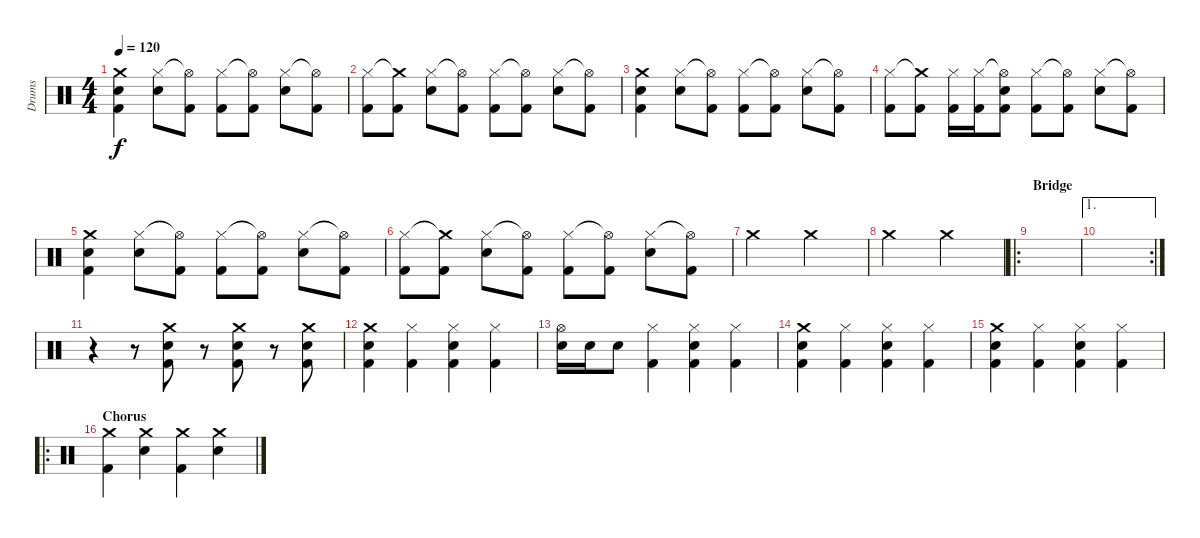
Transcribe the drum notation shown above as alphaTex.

\track ("Drums" "Drums") {instrument percussion}
\staff {score}
\articulation defaults
\ts (4 4)
\tempo 120
\clef neutral
\ks c
("Crash medium (hit)" "Snare (hit) 2" "Kick (hit) 2").4{dy f} ("Hi-Hat (closed)" "Snare (hit) 2").8 ("Hi-Hat (open)"{t} "Kick (hit) 2").8 ("Hi-Hat (closed)" "Kick (hit) 2").8 ("Hi-Hat (open)"{t} "Kick (hit) 2").8 ("Hi-Hat (closed)" "Snare (hit) 2").8 ("Hi-Hat (open)"{t} "Kick (hit) 2").8 |
("Hi-Hat (closed)" "Kick (hit) 2").8 ("Crash medium (hit)"{t} "Kick (hit) 2").8 ("Hi-Hat (closed)" "Snare (hit) 2").8 ("Hi-Hat (open)"{t} "Kick (hit) 2").8 ("Hi-Hat (closed)" "Kick (hit) 2").8 ("Hi-Hat (open)"{t} "Kick (hit) 2").8 ("Hi-Hat (closed)" "Snare (hit) 2").8 ("Hi-Hat (open)"{t} "Kick (hit) 2").8 |
("Crash medium (hit)" "Snare (hit) 2" "Kick (hit) 2").4 ("Hi-Hat (closed)" "Snare (hit) 2").8 ("Hi-Hat (open)"{t} "Kick (hit) 2").8 ("Hi-Hat (closed)" "Kick (hit) 2").8 ("Hi-Hat (open)"{t} "Kick (hit) 2").8 ("Hi-Hat (closed)" "Snare (hit) 2").8 ("Hi-Hat (open)"{t} "Kick (hit) 2").8 |
("Hi-Hat (closed)" "Kick (hit) 2").8 ("Crash medium (hit)"{t} "Kick (hit) 2").8 ("Hi-Hat (closed)" "Kick (hit) 2").16 ("Hi-Hat (closed)" "Kick (hit) 2").16 ("Hi-Hat (open)"{t} "Snare (hit) 2" "Kick (hit) 2").8 ("Hi-Hat (closed)" "Kick (hit) 2").8 ("Hi-Hat (open)"{t} "Kick (hit) 2").8 ("Hi-Hat (closed)" "Snare (hit) 2").8 ("Hi-Hat (open)"{t} "Kick (hit) 2").8 |
("Crash medium (hit)" "Snare (hit) 2" "Kick (hit) 2").4 ("Hi-Hat (closed)" "Snare (hit) 2").8 ("Hi-Hat (open)"{t} "Kick (hit) 2").8 ("Hi-Hat (closed)" "Kick (hit) 2").8 ("Hi-Hat (open)"{t} "Kick (hit) 2").8 ("Hi-Hat (closed)" "Snare (hit) 2").8 ("Hi-Hat (open)"{t} "Kick (hit) 2").8 |
("Hi-Hat (closed)" "Kick (hit) 2").8 ("Crash medium (hit)"{t} "Kick (hit) 2").8 ("Hi-Hat (closed)" "Snare (hit) 2").8 ("Hi-Hat (open)"{t} "Kick (hit) 2").8 ("Hi-Hat (closed)" "Kick (hit) 2").8 ("Hi-Hat (open)"{t} "Kick (hit) 2").8 ("Hi-Hat (closed)" "Snare (hit) 2").8 ("Hi-Hat (open)"{t} "Kick (hit) 2").8 |
"Crash medium (hit)".2 "Crash medium (hit)".2 |
"Crash medium (hit)".2 "Crash medium (hit)".2 |
\ro
\section ("" "Bridge")
|
\ae 1
\rc 2
|
r.4 r.8 ("Crash medium (hit)" "Snare (hit) 2" "Kick (hit) 2").8 r.8 ("Crash medium (hit)" "Snare (hit) 2" "Kick (hit) 2").8 r.8 ("Crash medium (hit)" "Snare (hit) 2" "Kick (hit) 2").8 |
("Crash medium (hit)" "Snare (hit) 2" "Kick (hit) 2").4 ("Hi-Hat (closed)" "Kick (hit) 2").4 ("Hi-Hat (closed)" "Snare (hit) 2" "Kick (hit) 2").4 ("Hi-Hat (closed)" "Kick (hit) 2").4 |
("Hi-Hat (open)" "Snare (hit) 2").16 "Snare (hit) 2".16 "Snare (hit) 2".8 ("Hi-Hat (closed)" "Kick (hit) 2").4 ("Hi-Hat (closed)" "Snare (hit) 2" "Kick (hit) 2").4 ("Hi-Hat (closed)" "Kick (hit) 2").4 |
("Crash medium (hit)" "Snare (hit) 2" "Kick (hit) 2").4 ("Hi-Hat (closed)" "Kick (hit) 2").4 ("Hi-Hat (closed)" "Snare (hit) 2" "Kick (hit) 2").4 ("Hi-Hat (closed)" "Kick (hit) 2").4 |
("Crash medium (hit)" "Snare (hit) 2" "Kick (hit) 2").4 ("Hi-Hat (closed)" "Kick (hit) 2").4 ("Hi-Hat (closed)" "Snare (hit) 2" "Kick (hit) 2").4 ("Hi-Hat (closed)" "Kick (hit) 2").4 |
\ro
\section ("" "Chorus")
("Crash medium (hit)" "Kick (hit) 2").4 ("Crash medium (hit)" "Snare (hit) 2").4 ("Crash medium (hit)" "Kick (hit) 2").4 ("Crash medium (hit)" "Snare (hit) 2").4
